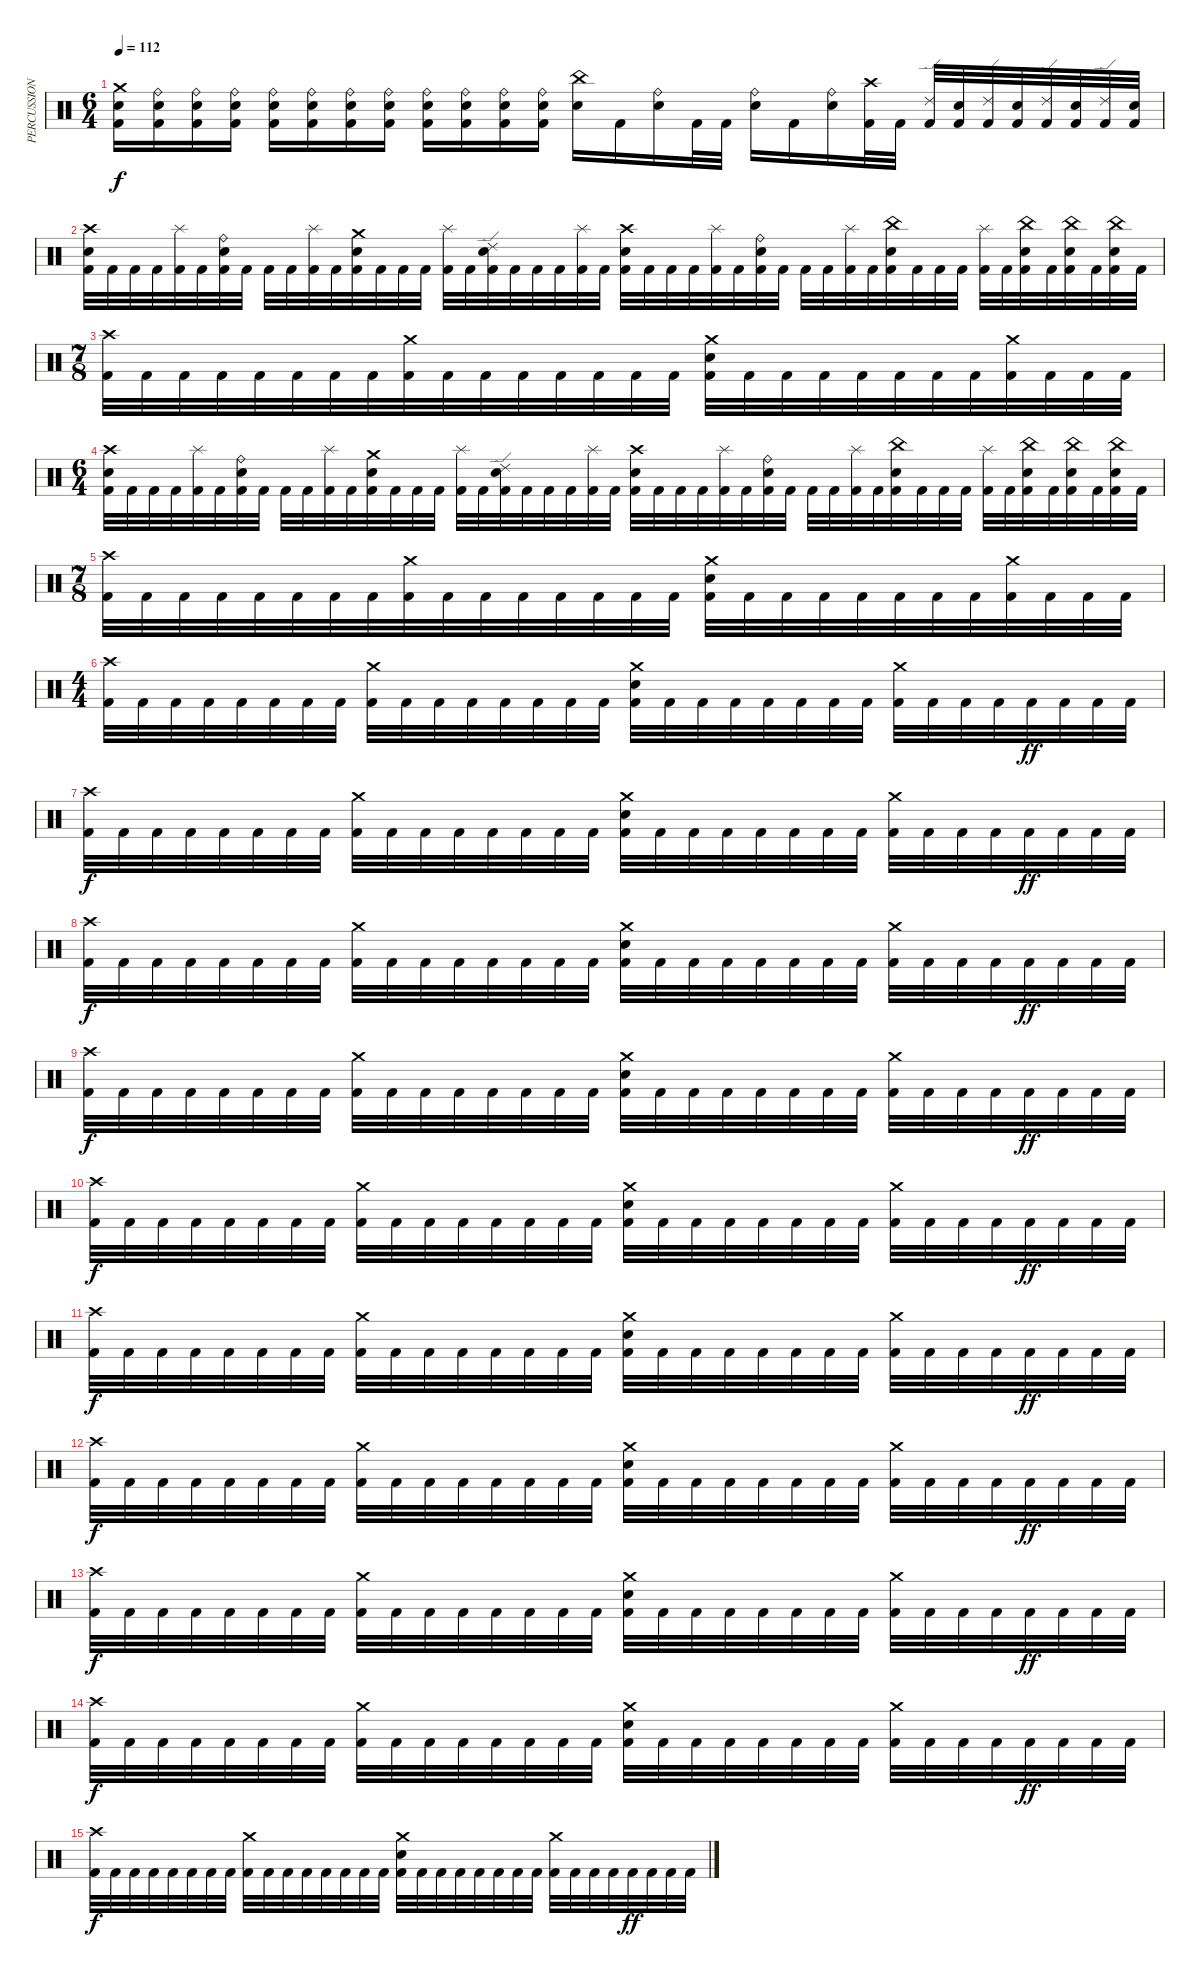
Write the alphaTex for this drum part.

\track ("PERCUSSION" "PERCUSSION") {instrument percussion}
\staff {score}
\articulation defaults
\ts (6 4)
\tempo 112
\clef neutral
\ks c
("Crash medium (hit)" "Electric Snare (hit)" "Kick (hit) 2").16{dy f} ("Ride (bell)" "Electric Snare (hit)" "Kick (hit) 2").16 ("Ride (bell)" "Electric Snare (hit)" "Kick (hit) 2").16 ("Ride (bell)" "Electric Snare (hit)" "Kick (hit) 2").16 ("Ride (bell)" "Electric Snare (hit)" "Kick (hit) 2").16 ("Ride (bell)" "Electric Snare (hit)" "Kick (hit) 2").16 ("Ride (bell)" "Electric Snare (hit)" "Kick (hit) 2").16 ("Ride (bell)" "Electric Snare (hit)" "Kick (hit) 2").16 ("Ride (bell)" "Electric Snare (hit)" "Kick (hit) 2").16 ("Ride (bell)" "Electric Snare (hit)" "Kick (hit) 2").16 ("Ride (bell)" "Electric Snare (hit)" "Kick (hit) 2").16 ("Ride (bell)" "Electric Snare (hit)" "Kick (hit) 2").16 ("China (hit)" "Electric Snare (hit)").16 "Kick (hit) 2".16 ("Ride (bell)" "Electric Snare (hit)").16 "Kick (hit) 2".32 "Kick (hit) 2".32 ("Ride (bell)" "Electric Snare (hit)").16 "Kick (hit) 2".16 ("Ride (bell)" "Electric Snare (hit)").16 ("Crash high (hit)" "Kick (hit) 2").32 "Kick (hit) 2".32 ("Ride (edge) 2" "Kick (hit) 2").32 ("Electric Snare (hit)" "Kick (hit) 2").32 ("Ride (edge) 2" "Kick (hit) 2").32 ("Electric Snare (hit)" "Kick (hit) 2").32 ("Ride (edge) 2" "Kick (hit) 2").32 ("Electric Snare (hit)" "Kick (hit) 2").32 ("Ride (edge) 2" "Kick (hit) 2").32 ("Electric Snare (hit)" "Kick (hit) 2").32 |
("Crash high (hit)" "Electric Snare (hit)" "Kick (hit) 2").32 "Kick (hit) 2".32 "Kick (hit) 2".32 "Kick (hit) 2".32 ("Splash (hit)" "Kick (hit) 2").32 "Kick (hit) 2".32 ("Ride (bell)" "Electric Snare (hit)" "Kick (hit) 2").32 "Kick (hit) 2".32 "Kick (hit) 2".32 "Kick (hit) 2".32 ("Splash (hit)" "Kick (hit) 2").32 "Kick (hit) 2".32 ("Crash medium (hit)" "Electric Snare (hit)" "Kick (hit) 2").32 "Kick (hit) 2".32 "Kick (hit) 2".32 "Kick (hit) 2".32 ("Splash (hit)" "Kick (hit) 2").32 "Kick (hit) 2".32 ("Ride (edge) 2" "Electric Snare (hit)" "Kick (hit) 2").32 "Kick (hit) 2".32 "Kick (hit) 2".32 "Kick (hit) 2".32 ("Splash (hit)" "Kick (hit) 2").32 "Kick (hit) 2".32 ("Crash high (hit)" "Electric Snare (hit)" "Kick (hit) 2").32 "Kick (hit) 2".32 "Kick (hit) 2".32 "Kick (hit) 2".32 ("Splash (hit)" "Kick (hit) 2").32 "Kick (hit) 2".32 ("Ride (bell)" "Electric Snare (hit)" "Kick (hit) 2").32 "Kick (hit) 2".32 "Kick (hit) 2".32 "Kick (hit) 2".32 ("Splash (hit)" "Kick (hit) 2").32 "Kick (hit) 2".32 ("China (hit)" "Electric Snare (hit)" "Kick (hit) 2").32 "Kick (hit) 2".32 "Kick (hit) 2".32 "Kick (hit) 2".32 ("Splash (hit)" "Kick (hit) 2").32 "Kick (hit) 2".32 ("China (hit)" "Electric Snare (hit)" "Kick (hit) 2").32 "Kick (hit) 2".32 ("China (hit)" "Electric Snare (hit)" "Kick (hit) 2").32 "Kick (hit) 2".32 ("China (hit)" "Electric Snare (hit)" "Kick (hit) 2").32 "Kick (hit) 2".32 |
\ts (7 8)
("Crash high (hit)" "Kick (hit) 2").32 "Kick (hit) 2".32 "Kick (hit) 2".32 "Kick (hit) 2".32 "Kick (hit) 2".32 "Kick (hit) 2".32 "Kick (hit) 2".32 "Kick (hit) 2".32 ("Crash medium (hit)" "Kick (hit) 2").32 "Kick (hit) 2".32 "Kick (hit) 2".32 "Kick (hit) 2".32 "Kick (hit) 2".32 "Kick (hit) 2".32 "Kick (hit) 2".32 "Kick (hit) 2".32 ("Crash medium (hit)" "Electric Snare (hit)" "Kick (hit) 2").32 "Kick (hit) 2".32 "Kick (hit) 2".32 "Kick (hit) 2".32 "Kick (hit) 2".32 "Kick (hit) 2".32 "Kick (hit) 2".32 "Kick (hit) 2".32 ("Crash medium (hit)" "Kick (hit) 2").32 "Kick (hit) 2".32 "Kick (hit) 2".32 "Kick (hit) 2".32 |
\ts (6 4)
("Crash high (hit)" "Electric Snare (hit)" "Kick (hit) 2").32 "Kick (hit) 2".32 "Kick (hit) 2".32 "Kick (hit) 2".32 ("Splash (hit)" "Kick (hit) 2").32 "Kick (hit) 2".32 ("Ride (bell)" "Electric Snare (hit)" "Kick (hit) 2").32 "Kick (hit) 2".32 "Kick (hit) 2".32 "Kick (hit) 2".32 ("Splash (hit)" "Kick (hit) 2").32 "Kick (hit) 2".32 ("Crash medium (hit)" "Electric Snare (hit)" "Kick (hit) 2").32 "Kick (hit) 2".32 "Kick (hit) 2".32 "Kick (hit) 2".32 ("Splash (hit)" "Kick (hit) 2").32 "Kick (hit) 2".32 ("Ride (edge) 2" "Electric Snare (hit)" "Kick (hit) 2").32 "Kick (hit) 2".32 "Kick (hit) 2".32 "Kick (hit) 2".32 ("Splash (hit)" "Kick (hit) 2").32 "Kick (hit) 2".32 ("Crash high (hit)" "Electric Snare (hit)" "Kick (hit) 2").32 "Kick (hit) 2".32 "Kick (hit) 2".32 "Kick (hit) 2".32 ("Splash (hit)" "Kick (hit) 2").32 "Kick (hit) 2".32 ("Ride (bell)" "Electric Snare (hit)" "Kick (hit) 2").32 "Kick (hit) 2".32 "Kick (hit) 2".32 "Kick (hit) 2".32 ("Splash (hit)" "Kick (hit) 2").32 "Kick (hit) 2".32 ("China (hit)" "Electric Snare (hit)" "Kick (hit) 2").32 "Kick (hit) 2".32 "Kick (hit) 2".32 "Kick (hit) 2".32 ("Splash (hit)" "Kick (hit) 2").32 "Kick (hit) 2".32 ("China (hit)" "Electric Snare (hit)" "Kick (hit) 2").32 "Kick (hit) 2".32 ("China (hit)" "Electric Snare (hit)" "Kick (hit) 2").32 "Kick (hit) 2".32 ("China (hit)" "Electric Snare (hit)" "Kick (hit) 2").32 "Kick (hit) 2".32 |
\ts (7 8)
("Crash high (hit)" "Kick (hit) 2").32 "Kick (hit) 2".32 "Kick (hit) 2".32 "Kick (hit) 2".32 "Kick (hit) 2".32 "Kick (hit) 2".32 "Kick (hit) 2".32 "Kick (hit) 2".32 ("Crash medium (hit)" "Kick (hit) 2").32 "Kick (hit) 2".32 "Kick (hit) 2".32 "Kick (hit) 2".32 "Kick (hit) 2".32 "Kick (hit) 2".32 "Kick (hit) 2".32 "Kick (hit) 2".32 ("Crash medium (hit)" "Electric Snare (hit)" "Kick (hit) 2").32 "Kick (hit) 2".32 "Kick (hit) 2".32 "Kick (hit) 2".32 "Kick (hit) 2".32 "Kick (hit) 2".32 "Kick (hit) 2".32 "Kick (hit) 2".32 ("Crash medium (hit)" "Kick (hit) 2").32 "Kick (hit) 2".32 "Kick (hit) 2".32 "Kick (hit) 2".32 |
\ts (4 4)
("Crash high (hit)" "Kick (hit) 2").32 "Kick (hit) 2".32 "Kick (hit) 2".32 "Kick (hit) 2".32 "Kick (hit) 2".32 "Kick (hit) 2".32 "Kick (hit) 2".32 "Kick (hit) 2".32 ("Crash medium (hit)" "Kick (hit) 2").32 "Kick (hit) 2".32 "Kick (hit) 2".32 "Kick (hit) 2".32 "Kick (hit) 2".32 "Kick (hit) 2".32 "Kick (hit) 2".32 "Kick (hit) 2".32 ("Crash medium (hit)" "Electric Snare (hit)" "Kick (hit) 2").32 "Kick (hit) 2".32 "Kick (hit) 2".32 "Kick (hit) 2".32 "Kick (hit) 2".32 "Kick (hit) 2".32 "Kick (hit) 2".32 "Kick (hit) 2".32 ("Crash medium (hit)" "Kick (hit) 2").32 "Kick (hit) 2".32 "Kick (hit) 2".32 "Kick (hit) 2".32 "Kick (hit) 2".32{dy ff} "Kick (hit) 2".32 "Kick (hit) 2".32 "Kick (hit) 2".32 |
("Crash high (hit)" "Kick (hit) 2").32{dy f} "Kick (hit) 2".32 "Kick (hit) 2".32 "Kick (hit) 2".32 "Kick (hit) 2".32 "Kick (hit) 2".32 "Kick (hit) 2".32 "Kick (hit) 2".32 ("Crash medium (hit)" "Kick (hit) 2").32 "Kick (hit) 2".32 "Kick (hit) 2".32 "Kick (hit) 2".32 "Kick (hit) 2".32 "Kick (hit) 2".32 "Kick (hit) 2".32 "Kick (hit) 2".32 ("Crash medium (hit)" "Electric Snare (hit)" "Kick (hit) 2").32 "Kick (hit) 2".32 "Kick (hit) 2".32 "Kick (hit) 2".32 "Kick (hit) 2".32 "Kick (hit) 2".32 "Kick (hit) 2".32 "Kick (hit) 2".32 ("Crash medium (hit)" "Kick (hit) 2").32 "Kick (hit) 2".32 "Kick (hit) 2".32 "Kick (hit) 2".32 "Kick (hit) 2".32{dy ff} "Kick (hit) 2".32 "Kick (hit) 2".32 "Kick (hit) 2".32 |
("Crash high (hit)" "Kick (hit) 2").32{dy f} "Kick (hit) 2".32 "Kick (hit) 2".32 "Kick (hit) 2".32 "Kick (hit) 2".32 "Kick (hit) 2".32 "Kick (hit) 2".32 "Kick (hit) 2".32 ("Crash medium (hit)" "Kick (hit) 2").32 "Kick (hit) 2".32 "Kick (hit) 2".32 "Kick (hit) 2".32 "Kick (hit) 2".32 "Kick (hit) 2".32 "Kick (hit) 2".32 "Kick (hit) 2".32 ("Crash medium (hit)" "Electric Snare (hit)" "Kick (hit) 2").32 "Kick (hit) 2".32 "Kick (hit) 2".32 "Kick (hit) 2".32 "Kick (hit) 2".32 "Kick (hit) 2".32 "Kick (hit) 2".32 "Kick (hit) 2".32 ("Crash medium (hit)" "Kick (hit) 2").32 "Kick (hit) 2".32 "Kick (hit) 2".32 "Kick (hit) 2".32 "Kick (hit) 2".32{dy ff} "Kick (hit) 2".32 "Kick (hit) 2".32 "Kick (hit) 2".32 |
("Crash high (hit)" "Kick (hit) 2").32{dy f} "Kick (hit) 2".32 "Kick (hit) 2".32 "Kick (hit) 2".32 "Kick (hit) 2".32 "Kick (hit) 2".32 "Kick (hit) 2".32 "Kick (hit) 2".32 ("Crash medium (hit)" "Kick (hit) 2").32 "Kick (hit) 2".32 "Kick (hit) 2".32 "Kick (hit) 2".32 "Kick (hit) 2".32 "Kick (hit) 2".32 "Kick (hit) 2".32 "Kick (hit) 2".32 ("Crash medium (hit)" "Electric Snare (hit)" "Kick (hit) 2").32 "Kick (hit) 2".32 "Kick (hit) 2".32 "Kick (hit) 2".32 "Kick (hit) 2".32 "Kick (hit) 2".32 "Kick (hit) 2".32 "Kick (hit) 2".32 ("Crash medium (hit)" "Kick (hit) 2").32 "Kick (hit) 2".32 "Kick (hit) 2".32 "Kick (hit) 2".32 "Kick (hit) 2".32{dy ff} "Kick (hit) 2".32 "Kick (hit) 2".32 "Kick (hit) 2".32 |
("Crash high (hit)" "Kick (hit) 2").32{dy f} "Kick (hit) 2".32 "Kick (hit) 2".32 "Kick (hit) 2".32 "Kick (hit) 2".32 "Kick (hit) 2".32 "Kick (hit) 2".32 "Kick (hit) 2".32 ("Crash medium (hit)" "Kick (hit) 2").32 "Kick (hit) 2".32 "Kick (hit) 2".32 "Kick (hit) 2".32 "Kick (hit) 2".32 "Kick (hit) 2".32 "Kick (hit) 2".32 "Kick (hit) 2".32 ("Crash medium (hit)" "Electric Snare (hit)" "Kick (hit) 2").32 "Kick (hit) 2".32 "Kick (hit) 2".32 "Kick (hit) 2".32 "Kick (hit) 2".32 "Kick (hit) 2".32 "Kick (hit) 2".32 "Kick (hit) 2".32 ("Crash medium (hit)" "Kick (hit) 2").32 "Kick (hit) 2".32 "Kick (hit) 2".32 "Kick (hit) 2".32 "Kick (hit) 2".32{dy ff} "Kick (hit) 2".32 "Kick (hit) 2".32 "Kick (hit) 2".32 |
("Crash high (hit)" "Kick (hit) 2").32{dy f} "Kick (hit) 2".32 "Kick (hit) 2".32 "Kick (hit) 2".32 "Kick (hit) 2".32 "Kick (hit) 2".32 "Kick (hit) 2".32 "Kick (hit) 2".32 ("Crash medium (hit)" "Kick (hit) 2").32 "Kick (hit) 2".32 "Kick (hit) 2".32 "Kick (hit) 2".32 "Kick (hit) 2".32 "Kick (hit) 2".32 "Kick (hit) 2".32 "Kick (hit) 2".32 ("Crash medium (hit)" "Electric Snare (hit)" "Kick (hit) 2").32 "Kick (hit) 2".32 "Kick (hit) 2".32 "Kick (hit) 2".32 "Kick (hit) 2".32 "Kick (hit) 2".32 "Kick (hit) 2".32 "Kick (hit) 2".32 ("Crash medium (hit)" "Kick (hit) 2").32 "Kick (hit) 2".32 "Kick (hit) 2".32 "Kick (hit) 2".32 "Kick (hit) 2".32{dy ff} "Kick (hit) 2".32 "Kick (hit) 2".32 "Kick (hit) 2".32 |
("Crash high (hit)" "Kick (hit) 2").32{dy f} "Kick (hit) 2".32 "Kick (hit) 2".32 "Kick (hit) 2".32 "Kick (hit) 2".32 "Kick (hit) 2".32 "Kick (hit) 2".32 "Kick (hit) 2".32 ("Crash medium (hit)" "Kick (hit) 2").32 "Kick (hit) 2".32 "Kick (hit) 2".32 "Kick (hit) 2".32 "Kick (hit) 2".32 "Kick (hit) 2".32 "Kick (hit) 2".32 "Kick (hit) 2".32 ("Crash medium (hit)" "Electric Snare (hit)" "Kick (hit) 2").32 "Kick (hit) 2".32 "Kick (hit) 2".32 "Kick (hit) 2".32 "Kick (hit) 2".32 "Kick (hit) 2".32 "Kick (hit) 2".32 "Kick (hit) 2".32 ("Crash medium (hit)" "Kick (hit) 2").32 "Kick (hit) 2".32 "Kick (hit) 2".32 "Kick (hit) 2".32 "Kick (hit) 2".32{dy ff} "Kick (hit) 2".32 "Kick (hit) 2".32 "Kick (hit) 2".32 |
("Crash high (hit)" "Kick (hit) 2").32{dy f} "Kick (hit) 2".32 "Kick (hit) 2".32 "Kick (hit) 2".32 "Kick (hit) 2".32 "Kick (hit) 2".32 "Kick (hit) 2".32 "Kick (hit) 2".32 ("Crash medium (hit)" "Kick (hit) 2").32 "Kick (hit) 2".32 "Kick (hit) 2".32 "Kick (hit) 2".32 "Kick (hit) 2".32 "Kick (hit) 2".32 "Kick (hit) 2".32 "Kick (hit) 2".32 ("Crash medium (hit)" "Electric Snare (hit)" "Kick (hit) 2").32 "Kick (hit) 2".32 "Kick (hit) 2".32 "Kick (hit) 2".32 "Kick (hit) 2".32 "Kick (hit) 2".32 "Kick (hit) 2".32 "Kick (hit) 2".32 ("Crash medium (hit)" "Kick (hit) 2").32 "Kick (hit) 2".32 "Kick (hit) 2".32 "Kick (hit) 2".32 "Kick (hit) 2".32{dy ff} "Kick (hit) 2".32 "Kick (hit) 2".32 "Kick (hit) 2".32 |
("Crash high (hit)" "Kick (hit) 2").32{dy f} "Kick (hit) 2".32 "Kick (hit) 2".32 "Kick (hit) 2".32 "Kick (hit) 2".32 "Kick (hit) 2".32 "Kick (hit) 2".32 "Kick (hit) 2".32 ("Crash medium (hit)" "Kick (hit) 2").32 "Kick (hit) 2".32 "Kick (hit) 2".32 "Kick (hit) 2".32 "Kick (hit) 2".32 "Kick (hit) 2".32 "Kick (hit) 2".32 "Kick (hit) 2".32 ("Crash medium (hit)" "Electric Snare (hit)" "Kick (hit) 2").32 "Kick (hit) 2".32 "Kick (hit) 2".32 "Kick (hit) 2".32 "Kick (hit) 2".32 "Kick (hit) 2".32 "Kick (hit) 2".32 "Kick (hit) 2".32 ("Crash medium (hit)" "Kick (hit) 2").32 "Kick (hit) 2".32 "Kick (hit) 2".32 "Kick (hit) 2".32 "Kick (hit) 2".32{dy ff} "Kick (hit) 2".32 "Kick (hit) 2".32 "Kick (hit) 2".32 |
("Crash high (hit)" "Kick (hit) 2").32{dy f} "Kick (hit) 2".32 "Kick (hit) 2".32 "Kick (hit) 2".32 "Kick (hit) 2".32 "Kick (hit) 2".32 "Kick (hit) 2".32 "Kick (hit) 2".32 ("Crash medium (hit)" "Kick (hit) 2").32 "Kick (hit) 2".32 "Kick (hit) 2".32 "Kick (hit) 2".32 "Kick (hit) 2".32 "Kick (hit) 2".32 "Kick (hit) 2".32 "Kick (hit) 2".32 ("Crash medium (hit)" "Electric Snare (hit)" "Kick (hit) 2").32 "Kick (hit) 2".32 "Kick (hit) 2".32 "Kick (hit) 2".32 "Kick (hit) 2".32 "Kick (hit) 2".32 "Kick (hit) 2".32 "Kick (hit) 2".32 ("Crash medium (hit)" "Kick (hit) 2").32 "Kick (hit) 2".32 "Kick (hit) 2".32 "Kick (hit) 2".32 "Kick (hit) 2".32{dy ff} "Kick (hit) 2".32 "Kick (hit) 2".32 "Kick (hit) 2".32
